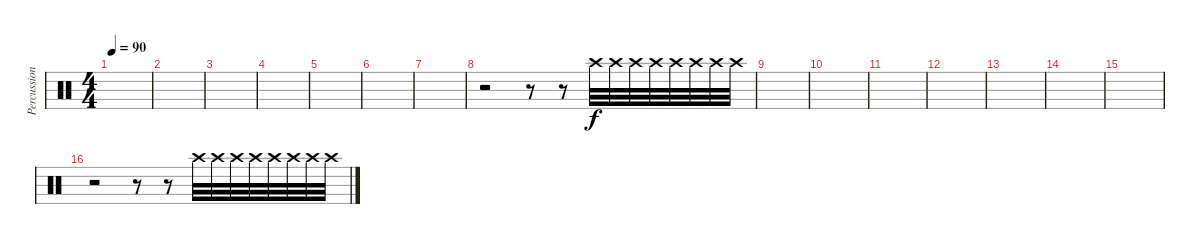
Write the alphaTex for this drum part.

\track ("Percussion" "Percussion") {instrument percussion}
\staff {score}
\articulation defaults
\ts (4 4)
\tempo 90
\clef neutral
\ks c
|
|
|
|
|
|
|
r.2 r.8 r.8 "Crash high (hit)".32 "Crash high (hit)".32 "Crash high (hit)".32 "Crash high (hit)".32 "Crash high (hit)".32 "Crash high (hit)".32 "Crash high (hit)".32 "Crash high (hit)".32 |
|
|
|
|
|
|
|
r.2 r.8 r.8 "Crash high (hit)".32 "Crash high (hit)".32 "Crash high (hit)".32 "Crash high (hit)".32 "Crash high (hit)".32 "Crash high (hit)".32 "Crash high (hit)".32 "Crash high (hit)".32
